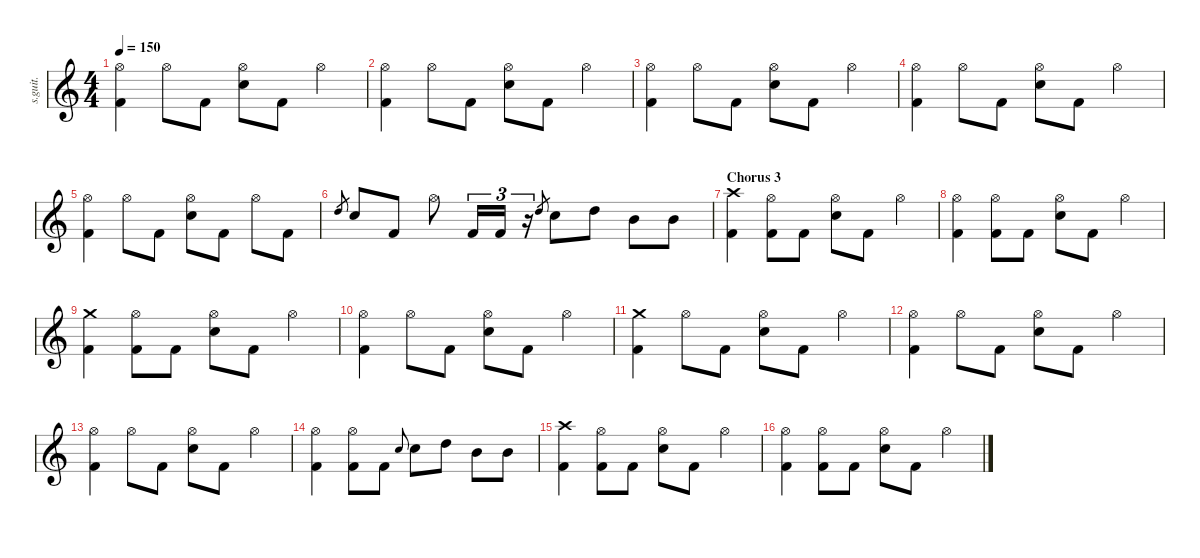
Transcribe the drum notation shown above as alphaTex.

\defaultSystemsLayout 4
\hideDynamics
\bracketExtendMode nobrackets
\track ("Christoph Schneider" "s.guit.") {instrument percussion}
\staff {score}
\articulation defaults
\ts (4 4)
\tempo 150
\clef g2
\ks c
("Kick (hit) 2" "Hi-Hat (open)").4{lyrics (0 "") lyrics (1 "") lyrics (2 "") lyrics (3 "") lyrics (4 "") dy ff} "Hi-Hat (open)".8{lyrics (0 "") lyrics (1 "") lyrics (2 "") lyrics (3 "") lyrics (4 "")} "Kick (hit) 2".8{lyrics (0 "") lyrics (1 "") lyrics (2 "") lyrics (3 "") lyrics (4 "")} ("Snare (hit) 2" "Hi-Hat (open)").8{lyrics (0 "") lyrics (1 "") lyrics (2 "") lyrics (3 "") lyrics (4 "")} "Kick (hit) 2".8{lyrics (0 "") lyrics (1 "") lyrics (2 "") lyrics (3 "") lyrics (4 "")} "Hi-Hat (open)".4{lyrics (0 "") lyrics (1 "") lyrics (2 "") lyrics (3 "") lyrics (4 "")} |
("Kick (hit) 2" "Hi-Hat (open)").4{lyrics (0 "") lyrics (1 "") lyrics (2 "") lyrics (3 "") lyrics (4 "")} "Hi-Hat (open)".8{lyrics (0 "") lyrics (1 "") lyrics (2 "") lyrics (3 "") lyrics (4 "")} "Kick (hit) 2".8{lyrics (0 "") lyrics (1 "") lyrics (2 "") lyrics (3 "") lyrics (4 "")} ("Snare (hit) 2" "Hi-Hat (open)").8{lyrics (0 "") lyrics (1 "") lyrics (2 "") lyrics (3 "") lyrics (4 "")} "Kick (hit) 2".8{lyrics (0 "") lyrics (1 "") lyrics (2 "") lyrics (3 "") lyrics (4 "")} "Hi-Hat (open)".4{lyrics (0 "") lyrics (1 "") lyrics (2 "") lyrics (3 "") lyrics (4 "")} |
("Kick (hit) 2" "Hi-Hat (open)").4{lyrics (0 "") lyrics (1 "") lyrics (2 "") lyrics (3 "") lyrics (4 "")} "Hi-Hat (open)".8{lyrics (0 "") lyrics (1 "") lyrics (2 "") lyrics (3 "") lyrics (4 "")} "Kick (hit) 2".8{lyrics (0 "") lyrics (1 "") lyrics (2 "") lyrics (3 "") lyrics (4 "")} ("Snare (hit) 2" "Hi-Hat (open)").8{lyrics (0 "") lyrics (1 "") lyrics (2 "") lyrics (3 "") lyrics (4 "")} "Kick (hit) 2".8{lyrics (0 "") lyrics (1 "") lyrics (2 "") lyrics (3 "") lyrics (4 "")} "Hi-Hat (open)".4{lyrics (0 "") lyrics (1 "") lyrics (2 "") lyrics (3 "") lyrics (4 "")} |
("Kick (hit) 2" "Hi-Hat (open)").4{lyrics (0 "") lyrics (1 "") lyrics (2 "") lyrics (3 "") lyrics (4 "")} "Hi-Hat (open)".8{lyrics (0 "") lyrics (1 "") lyrics (2 "") lyrics (3 "") lyrics (4 "")} "Kick (hit) 2".8{lyrics (0 "") lyrics (1 "") lyrics (2 "") lyrics (3 "") lyrics (4 "")} ("Snare (hit) 2" "Hi-Hat (open)").8{lyrics (0 "") lyrics (1 "") lyrics (2 "") lyrics (3 "") lyrics (4 "")} "Kick (hit) 2".8{lyrics (0 "") lyrics (1 "") lyrics (2 "") lyrics (3 "") lyrics (4 "")} "Hi-Hat (open)".4{lyrics (0 "") lyrics (1 "") lyrics (2 "") lyrics (3 "") lyrics (4 "")} |
("Hi-Hat (open)" "Kick (hit) 2").4{lyrics (0 "") lyrics (1 "") lyrics (2 "") lyrics (3 "") lyrics (4 "")} "Hi-Hat (open)".8{lyrics (0 "") lyrics (1 "") lyrics (2 "") lyrics (3 "") lyrics (4 "")} "Kick (hit) 2".8{lyrics (0 "") lyrics (1 "") lyrics (2 "") lyrics (3 "") lyrics (4 "")} ("Hi-Hat (open)" "Snare (hit) 2").8{lyrics (0 "") lyrics (1 "") lyrics (2 "") lyrics (3 "") lyrics (4 "")} "Kick (hit) 2".8{lyrics (0 "") lyrics (1 "") lyrics (2 "") lyrics (3 "") lyrics (4 "")} "Hi-Hat (open)".8{lyrics (0 "") lyrics (1 "") lyrics (2 "") lyrics (3 "") lyrics (4 "")} "Kick (hit) 2".8{lyrics (0 "") lyrics (1 "") lyrics (2 "") lyrics (3 "") lyrics (4 "")} |
"High Tom (hit)".8{lyrics (0 "") lyrics (1 "") lyrics (2 "") lyrics (3 "") lyrics (4 "") gr} "Snare (hit) 2".8{lyrics (0 "") lyrics (1 "") lyrics (2 "") lyrics (3 "") lyrics (4 "")} "Kick (hit) 2".8{lyrics (0 "") lyrics (1 "") lyrics (2 "") lyrics (3 "") lyrics (4 "")} "Hi-Hat (open)".8{lyrics (0 "") lyrics (1 "") lyrics (2 "") lyrics (3 "") lyrics (4 "")} "Kick (hit) 2".16{tu (3 2) lyrics (0 "") lyrics (1 "") lyrics (2 "") lyrics (3 "") lyrics (4 "")} "Kick (hit) 2".16{tu (3 2) lyrics (0 "") lyrics (1 "") lyrics (2 "") lyrics (3 "") lyrics (4 "")} r.16{tu (3 2)} "High Tom (hit)".8{lyrics (0 "") lyrics (1 "") lyrics (2 "") lyrics (3 "") lyrics (4 "") gr} "Snare (hit) 2".8{lyrics (0 "") lyrics (1 "") lyrics (2 "") lyrics (3 "") lyrics (4 "")} "High Tom (hit)".8{lyrics (0 "") lyrics (1 "") lyrics (2 "") lyrics (3 "") lyrics (4 "")} "Mid Tom (hit)".8{lyrics (0 "") lyrics (1 "") lyrics (2 "") lyrics (3 "") lyrics (4 "")} "Mid Tom (hit)".8{lyrics (0 "") lyrics (1 "") lyrics (2 "") lyrics (3 "") lyrics (4 "")} |
\section ("" "Chorus 3")
("Kick (hit) 2" "Crash high (hit)").4{lyrics (0 "") lyrics (1 "") lyrics (2 "") lyrics (3 "") lyrics (4 "")} ("Hi-Hat (open)" "Kick (hit) 2").8{lyrics (0 "") lyrics (1 "") lyrics (2 "") lyrics (3 "") lyrics (4 "")} "Kick (hit) 2".8{lyrics (0 "") lyrics (1 "") lyrics (2 "") lyrics (3 "") lyrics (4 "")} ("Snare (hit) 2" "Hi-Hat (open)").8{lyrics (0 "") lyrics (1 "") lyrics (2 "") lyrics (3 "") lyrics (4 "")} "Kick (hit) 2".8{lyrics (0 "") lyrics (1 "") lyrics (2 "") lyrics (3 "") lyrics (4 "")} "Hi-Hat (open)".4{lyrics (0 "") lyrics (1 "") lyrics (2 "") lyrics (3 "") lyrics (4 "")} |
("Kick (hit) 2" "Hi-Hat (open)").4{lyrics (0 "") lyrics (1 "") lyrics (2 "") lyrics (3 "") lyrics (4 "")} ("Hi-Hat (open)" "Kick (hit) 2").8{lyrics (0 "") lyrics (1 "") lyrics (2 "") lyrics (3 "") lyrics (4 "")} "Kick (hit) 2".8{lyrics (0 "") lyrics (1 "") lyrics (2 "") lyrics (3 "") lyrics (4 "")} ("Snare (hit) 2" "Hi-Hat (open)").8{lyrics (0 "") lyrics (1 "") lyrics (2 "") lyrics (3 "") lyrics (4 "")} "Kick (hit) 2".8{lyrics (0 "") lyrics (1 "") lyrics (2 "") lyrics (3 "") lyrics (4 "")} "Hi-Hat (open)".4{lyrics (0 "") lyrics (1 "") lyrics (2 "") lyrics (3 "") lyrics (4 "")} |
("Kick (hit) 2" "Crash medium (hit)").4{lyrics (0 "") lyrics (1 "") lyrics (2 "") lyrics (3 "") lyrics (4 "")} ("Hi-Hat (open)" "Kick (hit) 2").8{lyrics (0 "") lyrics (1 "") lyrics (2 "") lyrics (3 "") lyrics (4 "")} "Kick (hit) 2".8{lyrics (0 "") lyrics (1 "") lyrics (2 "") lyrics (3 "") lyrics (4 "")} ("Snare (hit) 2" "Hi-Hat (open)").8{lyrics (0 "") lyrics (1 "") lyrics (2 "") lyrics (3 "") lyrics (4 "")} "Kick (hit) 2".8{lyrics (0 "") lyrics (1 "") lyrics (2 "") lyrics (3 "") lyrics (4 "")} "Hi-Hat (open)".4{lyrics (0 "") lyrics (1 "") lyrics (2 "") lyrics (3 "") lyrics (4 "")} |
("Kick (hit) 2" "Hi-Hat (open)").4{lyrics (0 "") lyrics (1 "") lyrics (2 "") lyrics (3 "") lyrics (4 "")} "Hi-Hat (open)".8{lyrics (0 "") lyrics (1 "") lyrics (2 "") lyrics (3 "") lyrics (4 "")} "Kick (hit) 2".8{lyrics (0 "") lyrics (1 "") lyrics (2 "") lyrics (3 "") lyrics (4 "")} ("Snare (hit) 2" "Hi-Hat (open)").8{lyrics (0 "") lyrics (1 "") lyrics (2 "") lyrics (3 "") lyrics (4 "")} "Kick (hit) 2".8{lyrics (0 "") lyrics (1 "") lyrics (2 "") lyrics (3 "") lyrics (4 "")} "Hi-Hat (open)".4{lyrics (0 "") lyrics (1 "") lyrics (2 "") lyrics (3 "") lyrics (4 "")} |
("Kick (hit) 2" "Crash medium (hit)").4{lyrics (0 "") lyrics (1 "") lyrics (2 "") lyrics (3 "") lyrics (4 "")} "Hi-Hat (open)".8{lyrics (0 "") lyrics (1 "") lyrics (2 "") lyrics (3 "") lyrics (4 "")} "Kick (hit) 2".8{lyrics (0 "") lyrics (1 "") lyrics (2 "") lyrics (3 "") lyrics (4 "")} ("Snare (hit) 2" "Hi-Hat (open)").8{lyrics (0 "") lyrics (1 "") lyrics (2 "") lyrics (3 "") lyrics (4 "")} "Kick (hit) 2".8{lyrics (0 "") lyrics (1 "") lyrics (2 "") lyrics (3 "") lyrics (4 "")} "Hi-Hat (open)".4{lyrics (0 "") lyrics (1 "") lyrics (2 "") lyrics (3 "") lyrics (4 "")} |
("Kick (hit) 2" "Hi-Hat (open)").4{lyrics (0 "") lyrics (1 "") lyrics (2 "") lyrics (3 "") lyrics (4 "")} "Hi-Hat (open)".8{lyrics (0 "") lyrics (1 "") lyrics (2 "") lyrics (3 "") lyrics (4 "")} "Kick (hit) 2".8{lyrics (0 "") lyrics (1 "") lyrics (2 "") lyrics (3 "") lyrics (4 "")} ("Snare (hit) 2" "Hi-Hat (open)").8{lyrics (0 "") lyrics (1 "") lyrics (2 "") lyrics (3 "") lyrics (4 "")} "Kick (hit) 2".8{lyrics (0 "") lyrics (1 "") lyrics (2 "") lyrics (3 "") lyrics (4 "")} "Hi-Hat (open)".4{lyrics (0 "") lyrics (1 "") lyrics (2 "") lyrics (3 "") lyrics (4 "")} |
("Kick (hit) 2" "Hi-Hat (open)").4{lyrics (0 "") lyrics (1 "") lyrics (2 "") lyrics (3 "") lyrics (4 "")} "Hi-Hat (open)".8{lyrics (0 "") lyrics (1 "") lyrics (2 "") lyrics (3 "") lyrics (4 "")} "Kick (hit) 2".8{lyrics (0 "") lyrics (1 "") lyrics (2 "") lyrics (3 "") lyrics (4 "")} ("Snare (hit) 2" "Hi-Hat (open)").8{lyrics (0 "") lyrics (1 "") lyrics (2 "") lyrics (3 "") lyrics (4 "")} "Kick (hit) 2".8{lyrics (0 "") lyrics (1 "") lyrics (2 "") lyrics (3 "") lyrics (4 "")} "Hi-Hat (open)".4{lyrics (0 "") lyrics (1 "") lyrics (2 "") lyrics (3 "") lyrics (4 "")} |
("Kick (hit) 2" "Hi-Hat (open)").4{lyrics (0 "") lyrics (1 "") lyrics (2 "") lyrics (3 "") lyrics (4 "")} ("Kick (hit) 2" "Hi-Hat (open)").8{lyrics (0 "") lyrics (1 "") lyrics (2 "") lyrics (3 "") lyrics (4 "")} "Kick (hit) 2".8{lyrics (0 "") lyrics (1 "") lyrics (2 "") lyrics (3 "") lyrics (4 "")} "Snare (hit) 2".8{lyrics (0 "") lyrics (1 "") lyrics (2 "") lyrics (3 "") lyrics (4 "") gr onbeat} "Snare (hit) 2".8{lyrics (0 "") lyrics (1 "") lyrics (2 "") lyrics (3 "") lyrics (4 "")} "High Tom (hit)".8{lyrics (0 "") lyrics (1 "") lyrics (2 "") lyrics (3 "") lyrics (4 "")} "Mid Tom (hit)".8{lyrics (0 "") lyrics (1 "") lyrics (2 "") lyrics (3 "") lyrics (4 "")} "Mid Tom (hit)".8{lyrics (0 "") lyrics (1 "") lyrics (2 "") lyrics (3 "") lyrics (4 "")} |
("Kick (hit) 2" "Crash high (hit)").4{lyrics (0 "") lyrics (1 "") lyrics (2 "") lyrics (3 "") lyrics (4 "")} ("Hi-Hat (open)" "Kick (hit) 2").8{lyrics (0 "") lyrics (1 "") lyrics (2 "") lyrics (3 "") lyrics (4 "")} "Kick (hit) 2".8{lyrics (0 "") lyrics (1 "") lyrics (2 "") lyrics (3 "") lyrics (4 "")} ("Snare (hit) 2" "Hi-Hat (open)").8{lyrics (0 "") lyrics (1 "") lyrics (2 "") lyrics (3 "") lyrics (4 "")} "Kick (hit) 2".8{lyrics (0 "") lyrics (1 "") lyrics (2 "") lyrics (3 "") lyrics (4 "")} "Hi-Hat (open)".4{lyrics (0 "") lyrics (1 "") lyrics (2 "") lyrics (3 "") lyrics (4 "")} |
("Kick (hit) 2" "Hi-Hat (open)").4{lyrics (0 "") lyrics (1 "") lyrics (2 "") lyrics (3 "") lyrics (4 "")} ("Kick (hit) 2" "Hi-Hat (open)").8{lyrics (0 "") lyrics (1 "") lyrics (2 "") lyrics (3 "") lyrics (4 "")} "Kick (hit) 2".8{lyrics (0 "") lyrics (1 "") lyrics (2 "") lyrics (3 "") lyrics (4 "")} ("Snare (hit) 2" "Hi-Hat (open)").8{lyrics (0 "") lyrics (1 "") lyrics (2 "") lyrics (3 "") lyrics (4 "")} "Kick (hit) 2".8{lyrics (0 "") lyrics (1 "") lyrics (2 "") lyrics (3 "") lyrics (4 "")} "Hi-Hat (open)".4{lyrics (0 "") lyrics (1 "") lyrics (2 "") lyrics (3 "") lyrics (4 "")}
